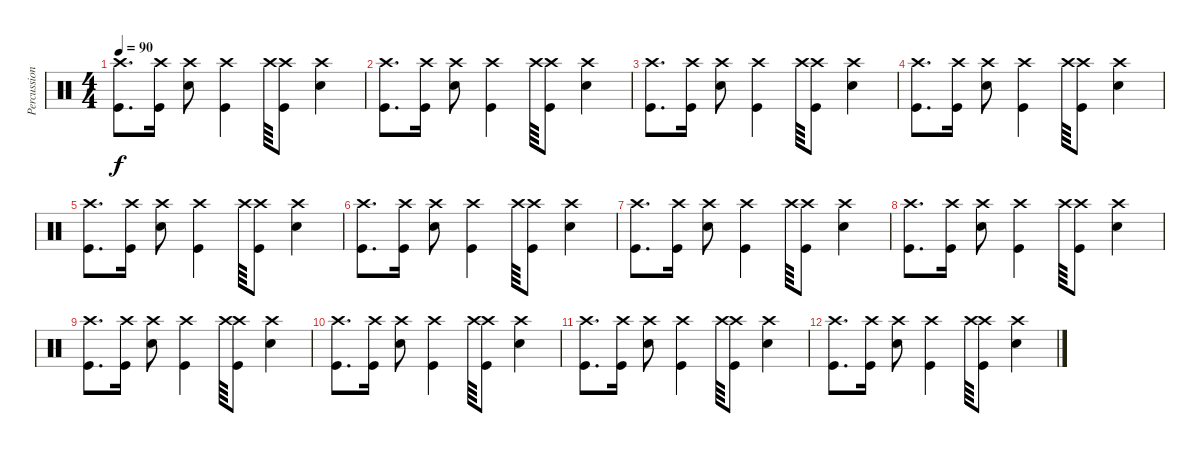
\track ("Percussion courtesy of unknown user" "Percussion") {instrument percussion}
\staff {score}
\articulation defaults
\ts (4 4)
\tempo 90
\clef neutral
\ks c
("Crash high (hit)" "Kick (hit)").8{d dy f} ("Crash high (hit)" "Kick (hit)").16 ("Crash high (hit)" "Snare (hit) 2").8 ("Crash high (hit)" "Kick (hit)").4 "Crash high (hit)".64 ("Crash high (hit)" "Kick (hit)").8 ("Crash high (hit)" "Snare (hit) 2").4 |
("Crash high (hit)" "Kick (hit)").8{d} ("Crash high (hit)" "Kick (hit)").16 ("Crash high (hit)" "Snare (hit) 2").8 ("Crash high (hit)" "Kick (hit)").4 "Crash high (hit)".64 ("Crash high (hit)" "Kick (hit)").8 ("Crash high (hit)" "Snare (hit) 2").4 |
("Crash high (hit)" "Kick (hit)").8{d} ("Crash high (hit)" "Kick (hit)").16 ("Crash high (hit)" "Snare (hit) 2").8 ("Crash high (hit)" "Kick (hit)").4 "Crash high (hit)".64 ("Crash high (hit)" "Kick (hit)").8 ("Crash high (hit)" "Snare (hit) 2").4 |
("Crash high (hit)" "Kick (hit)").8{d} ("Crash high (hit)" "Kick (hit)").16 ("Crash high (hit)" "Snare (hit) 2").8 ("Crash high (hit)" "Kick (hit)").4 "Crash high (hit)".64 ("Crash high (hit)" "Kick (hit)").8 ("Crash high (hit)" "Snare (hit) 2").4 |
("Crash high (hit)" "Kick (hit)").8{d} ("Crash high (hit)" "Kick (hit)").16 ("Crash high (hit)" "Snare (hit) 2").8 ("Crash high (hit)" "Kick (hit)").4 "Crash high (hit)".64 ("Crash high (hit)" "Kick (hit)").8 ("Crash high (hit)" "Snare (hit) 2").4 |
("Crash high (hit)" "Kick (hit)").8{d} ("Crash high (hit)" "Kick (hit)").16 ("Crash high (hit)" "Snare (hit) 2").8 ("Crash high (hit)" "Kick (hit)").4 "Crash high (hit)".64 ("Crash high (hit)" "Kick (hit)").8 ("Crash high (hit)" "Snare (hit) 2").4 |
("Crash high (hit)" "Kick (hit)").8{d} ("Crash high (hit)" "Kick (hit)").16 ("Crash high (hit)" "Snare (hit) 2").8 ("Crash high (hit)" "Kick (hit)").4 "Crash high (hit)".64 ("Crash high (hit)" "Kick (hit)").8 ("Crash high (hit)" "Snare (hit) 2").4 |
("Crash high (hit)" "Kick (hit)").8{d} ("Crash high (hit)" "Kick (hit)").16 ("Crash high (hit)" "Snare (hit) 2").8 ("Crash high (hit)" "Kick (hit)").4 "Crash high (hit)".64 ("Crash high (hit)" "Kick (hit)").8 ("Crash high (hit)" "Snare (hit) 2").4 |
("Crash high (hit)" "Kick (hit)").8{d} ("Crash high (hit)" "Kick (hit)").16 ("Crash high (hit)" "Snare (hit) 2").8 ("Crash high (hit)" "Kick (hit)").4 "Crash high (hit)".64 ("Crash high (hit)" "Kick (hit)").8 ("Crash high (hit)" "Snare (hit) 2").4 |
("Crash high (hit)" "Kick (hit)").8{d} ("Crash high (hit)" "Kick (hit)").16 ("Crash high (hit)" "Snare (hit) 2").8 ("Crash high (hit)" "Kick (hit)").4 "Crash high (hit)".64 ("Crash high (hit)" "Kick (hit)").8 ("Crash high (hit)" "Snare (hit) 2").4 |
("Crash high (hit)" "Kick (hit)").8{d} ("Crash high (hit)" "Kick (hit)").16 ("Crash high (hit)" "Snare (hit) 2").8 ("Crash high (hit)" "Kick (hit)").4 "Crash high (hit)".64 ("Crash high (hit)" "Kick (hit)").8 ("Crash high (hit)" "Snare (hit) 2").4 |
("Crash high (hit)" "Kick (hit)").8{d} ("Crash high (hit)" "Kick (hit)").16 ("Crash high (hit)" "Snare (hit) 2").8 ("Crash high (hit)" "Kick (hit)").4 "Crash high (hit)".64 ("Crash high (hit)" "Kick (hit)").8 ("Crash high (hit)" "Snare (hit) 2").4
